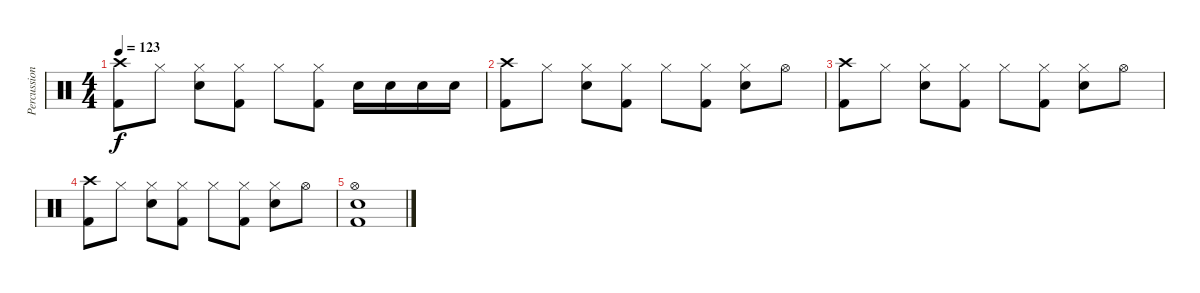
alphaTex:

\track ("Percussions" "Percussion") {instrument percussion}
\staff {score}
\articulation defaults
\ts (4 4)
\tempo 123
\clef neutral
\ks c
("Crash high (hit)" "Kick (hit) 2").8{dy f} "Hi-Hat (closed)".8 ("Hi-Hat (closed)" "Snare (hit) 2").8 ("Hi-Hat (closed)" "Kick (hit) 2").8 "Hi-Hat (closed)".8 ("Hi-Hat (closed)" "Kick (hit) 2").8 "Snare (hit) 2".16 "Snare (hit) 2".16 "Snare (hit) 2".16 "Snare (hit) 2".16 |
("Crash high (hit)" "Kick (hit) 2").8 "Hi-Hat (closed)".8 ("Hi-Hat (closed)" "Snare (hit) 2").8 ("Hi-Hat (closed)" "Kick (hit) 2").8 "Hi-Hat (closed)".8 ("Hi-Hat (closed)" "Kick (hit) 2").8 ("Hi-Hat (closed)" "Snare (hit) 2").8 "Hi-Hat (open)".8 |
("Crash high (hit)" "Kick (hit) 2").8 "Hi-Hat (closed)".8 ("Hi-Hat (closed)" "Snare (hit) 2").8 ("Hi-Hat (closed)" "Kick (hit) 2").8 "Hi-Hat (closed)".8 ("Hi-Hat (closed)" "Kick (hit) 2").8 ("Hi-Hat (closed)" "Snare (hit) 2").8 "Hi-Hat (open)".8 |
("Crash high (hit)" "Kick (hit) 2").8 "Hi-Hat (closed)".8 ("Hi-Hat (closed)" "Snare (hit) 2").8 ("Hi-Hat (closed)" "Kick (hit) 2").8 "Hi-Hat (closed)".8 ("Hi-Hat (closed)" "Kick (hit) 2").8 ("Hi-Hat (closed)" "Snare (hit) 2").8 "Hi-Hat (open)".8 |
("Hi-Hat (open)" "Snare (hit) 2" "Kick (hit) 2").1
